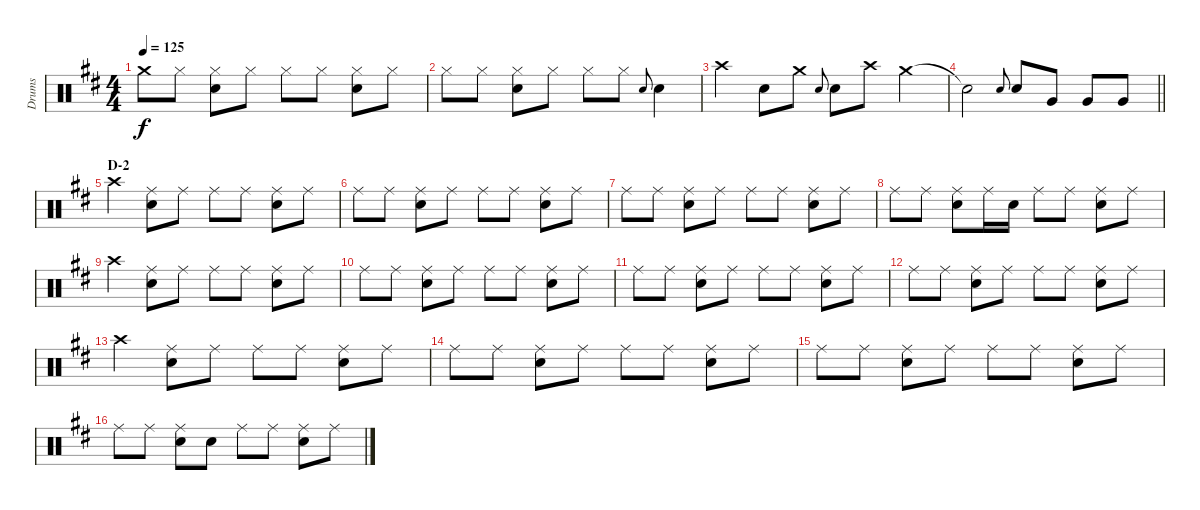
\track ("Drums" "Drums") {instrument percussion}
\staff {score}
\articulation defaults
\ts (4 4)
\tempo 125
\clef neutral
\ks d "Crash medium (hit)".8{dy f} "Hi-Hat (closed)".8
("Hi-Hat (closed)" "Snare (hit) 2").8 "Hi-Hat (closed)".8 "Hi-Hat (closed)".8 "Hi-Hat (closed)".8 ("Hi-Hat (closed)" "Snare (hit) 2").8 "Hi-Hat (closed)".8 |
"Hi-Hat (closed)".8 "Hi-Hat (closed)".8 ("Hi-Hat (closed)" "Snare (hit) 2").8 "Hi-Hat (closed)".8 "Hi-Hat (closed)".8 "Hi-Hat (closed)".8 "Snare (hit) 2".8{gr onbeat} "Snare (hit) 2".4 |
"Crash high (hit)".4 "Snare (hit) 2".8 "Crash medium (hit)".8 "Snare (hit) 2".8{gr onbeat} "Snare (hit) 2".8 "Crash high (hit)".8 "Crash medium (hit)".4 |
\barLineRight lightlight "Snare (hit)"{t}.2 "Snare (hit) 2".8{gr onbeat} "Snare (hit) 2".8 "Very Low Tom (hit)".8 "Very Low Tom (hit)".8 "Very Low Tom (hit)".8
|
\section ("" "D-2")
"Crash high (hit)".4 ("Ride (middle)" "Snare (hit) 2").8 "Ride (middle)".8 "Ride (middle)".8 "Ride (middle)".8 ("Ride (middle)" "Snare (hit) 2").8 "Ride (middle)".8 |
"Ride (middle)".8 "Ride (middle)".8 ("Ride (middle)" "Snare (hit) 2").8 "Ride (middle)".8 "Ride (middle)".8 "Ride (middle)".8 ("Ride (middle)" "Snare (hit) 2").8 "Ride (middle)".8 |
"Ride (middle)".8 "Ride (middle)".8 ("Ride (middle)" "Snare (hit) 2").8 "Ride (middle)".8 "Ride (middle)".8 "Ride (middle)".8 ("Ride (middle)" "Snare (hit) 2").8 "Ride (middle)".8 |
"Ride (middle)".8 "Ride (middle)".8 ("Ride (middle)" "Snare (hit) 2").8 "Ride (middle)".16 "Snare (hit) 2".16 "Ride (middle)".8 "Ride (middle)".8 ("Ride (middle)" "Snare (hit) 2").8 "Ride (middle)".8 |
"Crash high (hit)".4 ("Ride (middle)" "Snare (hit) 2").8 "Ride (middle)".8 "Ride (middle)".8 "Ride (middle)".8 ("Ride (middle)" "Snare (hit) 2").8 "Ride (middle)".8 |
"Ride (middle)".8 "Ride (middle)".8 ("Ride (middle)" "Snare (hit) 2").8 "Ride (middle)".8 "Ride (middle)".8 "Ride (middle)".8 ("Ride (middle)" "Snare (hit) 2").8 "Ride (middle)".8 |
"Ride (middle)".8 "Ride (middle)".8 ("Ride (middle)" "Snare (hit) 2").8 "Ride (middle)".8 "Ride (middle)".8 "Ride (middle)".8 ("Ride (middle)" "Snare (hit) 2").8 "Ride (middle)".8 |
"Ride (middle)".8 "Ride (middle)".8 ("Ride (middle)" "Snare (hit) 2").8 "Ride (middle)".8 "Ride (middle)".8 "Ride (middle)".8 ("Ride (middle)" "Snare (hit) 2").8 "Ride (middle)".8 |
"Crash high (hit)".4 ("Ride (middle)" "Snare (hit) 2").8 "Ride (middle)".8 "Ride (middle)".8 "Ride (middle)".8 ("Ride (middle)" "Snare (hit) 2").8 "Ride (middle)".8 |
"Ride (middle)".8 "Ride (middle)".8 ("Ride (middle)" "Snare (hit) 2").8 "Ride (middle)".8 "Ride (middle)".8 "Ride (middle)".8 ("Ride (middle)" "Snare (hit) 2").8 "Ride (middle)".8 |
"Ride (middle)".8 "Ride (middle)".8 ("Ride (middle)" "Snare (hit) 2").8 "Ride (middle)".8 "Ride (middle)".8 "Ride (middle)".8 ("Ride (middle)" "Snare (hit) 2").8 "Ride (middle)".8 |
"Ride (middle)".8 "Ride (middle)".8 ("Ride (middle)" "Snare (hit) 2").8 "Snare (hit) 2".8 "Ride (middle)".8 "Ride (middle)".8 ("Ride (middle)" "Snare (hit) 2").8 "Ride (middle)".8
